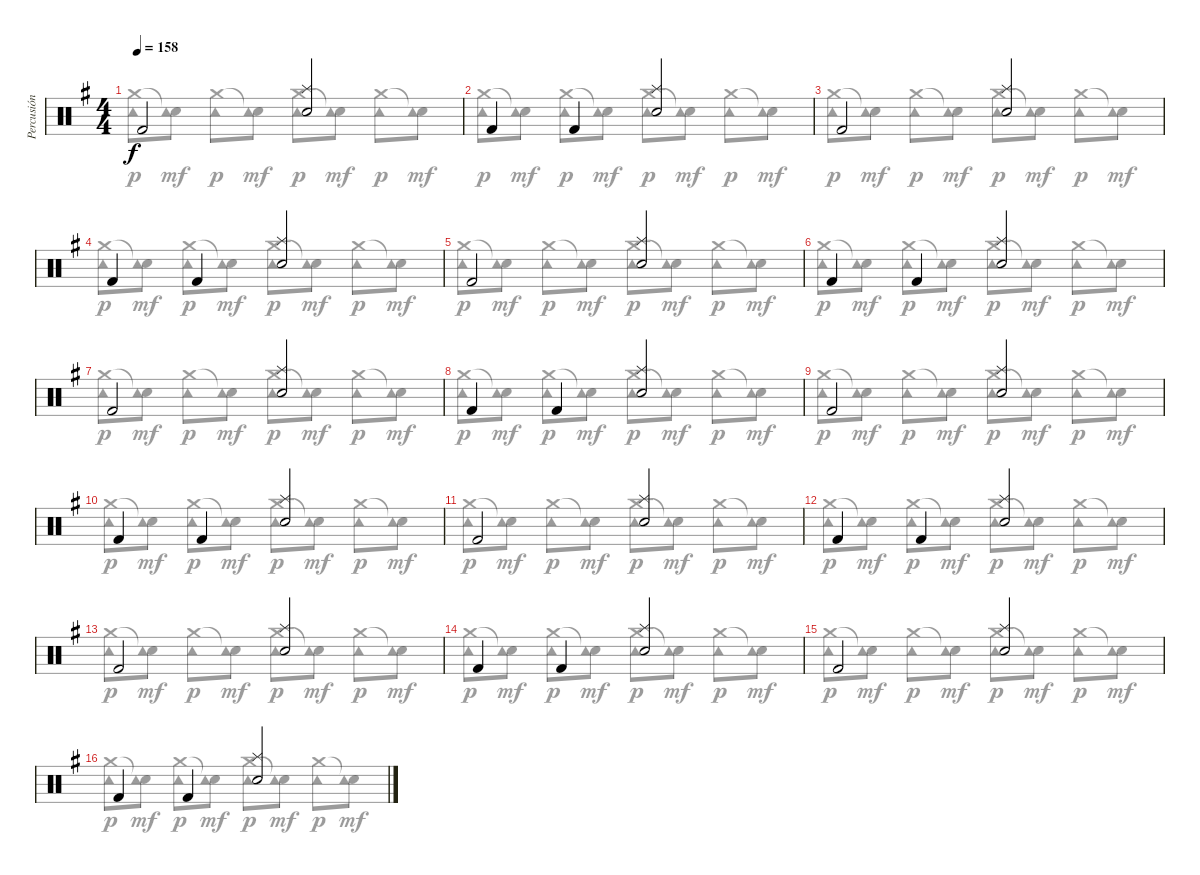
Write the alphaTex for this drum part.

\track ("Percusión" "Percusión") {instrument percussion}
\staff {score}
\articulation defaults
\voice
\ts (4 4)
\tempo 158
\clef neutral
\ks g "Kick (hit) 2".2{dy f}
("Splash (hit)" "Snare (hit) 2").2 |
"Kick (hit) 2".4 "Kick (hit) 2".4 ("Splash (hit)" "Snare (hit) 2").2 |
"Kick (hit) 2".2 ("Splash (hit)" "Snare (hit) 2").2 |
"Kick (hit) 2".4 "Kick (hit) 2".4 ("Splash (hit)" "Snare (hit) 2").2 |
"Kick (hit) 2".2 ("Splash (hit)" "Snare (hit) 2").2 |
"Kick (hit) 2".4 "Kick (hit) 2".4 ("Splash (hit)" "Snare (hit) 2").2 |
"Kick (hit) 2".2 ("Splash (hit)" "Snare (hit) 2").2 |
"Kick (hit) 2".4 "Kick (hit) 2".4 ("Splash (hit)" "Snare (hit) 2").2 |
"Kick (hit) 2".2 ("Splash (hit)" "Snare (hit) 2").2 |
"Kick (hit) 2".4 "Kick (hit) 2".4 ("Splash (hit)" "Snare (hit) 2").2 |
"Kick (hit) 2".2 ("Splash (hit)" "Snare (hit) 2").2 |
"Kick (hit) 2".4 "Kick (hit) 2".4 ("Splash (hit)" "Snare (hit) 2").2 |
"Kick (hit) 2".2 ("Splash (hit)" "Snare (hit) 2").2 |
"Kick (hit) 2".4 "Kick (hit) 2".4 ("Splash (hit)" "Snare (hit) 2").2 |
"Kick (hit) 2".2 ("Splash (hit)" "Snare (hit) 2").2 |
"Kick (hit) 2".4 "Kick (hit) 2".4 ("Splash (hit)" "Snare (hit) 2").2
\voice
\clef neutral
\ottava regular
\simile none
\ks g
("Crash medium (hit)" "Tambourine (hit)").8{dy p} ("Snare (hit)"{t} "Tambourine (hit)").8{dy mf} ("Crash medium (hit)" "Tambourine (hit)").8{dy p} ("Snare (hit)"{t} "Tambourine (hit)").8{dy mf} ("Crash medium (hit)" "Tambourine (hit)").8{dy p} ("Snare (hit)"{t} "Tambourine (hit)").8{dy mf} ("Crash medium (hit)" "Tambourine (hit)").8{dy p} ("Snare (hit)"{t} "Tambourine (hit)").8{dy mf} |
("Crash medium (hit)" "Tambourine (hit)").8{dy p} ("Snare (hit)"{t} "Tambourine (hit)").8{dy mf} ("Crash medium (hit)" "Tambourine (hit)").8{dy p} ("Snare (hit)"{t} "Tambourine (hit)").8{dy mf} ("Crash medium (hit)" "Tambourine (hit)").8{dy p} ("Snare (hit)"{t} "Tambourine (hit)").8{dy mf} ("Crash medium (hit)" "Tambourine (hit)").8{dy p} ("Snare (hit)"{t} "Tambourine (hit)").8{dy mf} |
("Crash medium (hit)" "Tambourine (hit)").8{dy p} ("Snare (hit)"{t} "Tambourine (hit)").8{dy mf} ("Crash medium (hit)" "Tambourine (hit)").8{dy p} ("Snare (hit)"{t} "Tambourine (hit)").8{dy mf} ("Crash medium (hit)" "Tambourine (hit)").8{dy p} ("Snare (hit)"{t} "Tambourine (hit)").8{dy mf} ("Crash medium (hit)" "Tambourine (hit)").8{dy p} ("Snare (hit)"{t} "Tambourine (hit)").8{dy mf} |
("Crash medium (hit)" "Tambourine (hit)").8{dy p} ("Snare (hit)"{t} "Tambourine (hit)").8{dy mf} ("Crash medium (hit)" "Tambourine (hit)").8{dy p} ("Snare (hit)"{t} "Tambourine (hit)").8{dy mf} ("Crash medium (hit)" "Tambourine (hit)").8{dy p} ("Snare (hit)"{t} "Tambourine (hit)").8{dy mf} ("Crash medium (hit)" "Tambourine (hit)").8{dy p} ("Snare (hit)"{t} "Tambourine (hit)").8{dy mf} |
("Crash medium (hit)" "Tambourine (hit)").8{dy p} ("Snare (hit)"{t} "Tambourine (hit)").8{dy mf} ("Crash medium (hit)" "Tambourine (hit)").8{dy p} ("Snare (hit)"{t} "Tambourine (hit)").8{dy mf} ("Crash medium (hit)" "Tambourine (hit)").8{dy p} ("Snare (hit)"{t} "Tambourine (hit)").8{dy mf} ("Crash medium (hit)" "Tambourine (hit)").8{dy p} ("Snare (hit)"{t} "Tambourine (hit)").8{dy mf} |
("Crash medium (hit)" "Tambourine (hit)").8{dy p} ("Snare (hit)"{t} "Tambourine (hit)").8{dy mf} ("Crash medium (hit)" "Tambourine (hit)").8{dy p} ("Snare (hit)"{t} "Tambourine (hit)").8{dy mf} ("Crash medium (hit)" "Tambourine (hit)").8{dy p} ("Snare (hit)"{t} "Tambourine (hit)").8{dy mf} ("Crash medium (hit)" "Tambourine (hit)").8{dy p} ("Snare (hit)"{t} "Tambourine (hit)").8{dy mf} |
("Crash medium (hit)" "Tambourine (hit)").8{dy p} ("Snare (hit)"{t} "Tambourine (hit)").8{dy mf} ("Crash medium (hit)" "Tambourine (hit)").8{dy p} ("Snare (hit)"{t} "Tambourine (hit)").8{dy mf} ("Crash medium (hit)" "Tambourine (hit)").8{dy p} ("Snare (hit)"{t} "Tambourine (hit)").8{dy mf} ("Crash medium (hit)" "Tambourine (hit)").8{dy p} ("Snare (hit)"{t} "Tambourine (hit)").8{dy mf} |
("Crash medium (hit)" "Tambourine (hit)").8{dy p} ("Snare (hit)"{t} "Tambourine (hit)").8{dy mf} ("Crash medium (hit)" "Tambourine (hit)").8{dy p} ("Snare (hit)"{t} "Tambourine (hit)").8{dy mf} ("Crash medium (hit)" "Tambourine (hit)").8{dy p} ("Snare (hit)"{t} "Tambourine (hit)").8{dy mf} ("Crash medium (hit)" "Tambourine (hit)").8{dy p} ("Snare (hit)"{t} "Tambourine (hit)").8{dy mf} |
("Crash medium (hit)" "Tambourine (hit)").8{dy p} ("Snare (hit)"{t} "Tambourine (hit)").8{dy mf} ("Crash medium (hit)" "Tambourine (hit)").8{dy p} ("Snare (hit)"{t} "Tambourine (hit)").8{dy mf} ("Crash medium (hit)" "Tambourine (hit)").8{dy p} ("Snare (hit)"{t} "Tambourine (hit)").8{dy mf} ("Crash medium (hit)" "Tambourine (hit)").8{dy p} ("Snare (hit)"{t} "Tambourine (hit)").8{dy mf} |
("Crash medium (hit)" "Tambourine (hit)").8{dy p} ("Snare (hit)"{t} "Tambourine (hit)").8{dy mf} ("Crash medium (hit)" "Tambourine (hit)").8{dy p} ("Snare (hit)"{t} "Tambourine (hit)").8{dy mf} ("Crash medium (hit)" "Tambourine (hit)").8{dy p} ("Snare (hit)"{t} "Tambourine (hit)").8{dy mf} ("Crash medium (hit)" "Tambourine (hit)").8{dy p} ("Snare (hit)"{t} "Tambourine (hit)").8{dy mf} |
("Crash medium (hit)" "Tambourine (hit)").8{dy p} ("Snare (hit)"{t} "Tambourine (hit)").8{dy mf} ("Crash medium (hit)" "Tambourine (hit)").8{dy p} ("Snare (hit)"{t} "Tambourine (hit)").8{dy mf} ("Crash medium (hit)" "Tambourine (hit)").8{dy p} ("Snare (hit)"{t} "Tambourine (hit)").8{dy mf} ("Crash medium (hit)" "Tambourine (hit)").8{dy p} ("Snare (hit)"{t} "Tambourine (hit)").8{dy mf} |
("Crash medium (hit)" "Tambourine (hit)").8{dy p} ("Snare (hit)"{t} "Tambourine (hit)").8{dy mf} ("Crash medium (hit)" "Tambourine (hit)").8{dy p} ("Snare (hit)"{t} "Tambourine (hit)").8{dy mf} ("Crash medium (hit)" "Tambourine (hit)").8{dy p} ("Snare (hit)"{t} "Tambourine (hit)").8{dy mf} ("Crash medium (hit)" "Tambourine (hit)").8{dy p} ("Snare (hit)"{t} "Tambourine (hit)").8{dy mf} |
("Crash medium (hit)" "Tambourine (hit)").8{dy p} ("Snare (hit)"{t} "Tambourine (hit)").8{dy mf} ("Crash medium (hit)" "Tambourine (hit)").8{dy p} ("Snare (hit)"{t} "Tambourine (hit)").8{dy mf} ("Crash medium (hit)" "Tambourine (hit)").8{dy p} ("Snare (hit)"{t} "Tambourine (hit)").8{dy mf} ("Crash medium (hit)" "Tambourine (hit)").8{dy p} ("Snare (hit)"{t} "Tambourine (hit)").8{dy mf} |
("Crash medium (hit)" "Tambourine (hit)").8{dy p} ("Snare (hit)"{t} "Tambourine (hit)").8{dy mf} ("Crash medium (hit)" "Tambourine (hit)").8{dy p} ("Snare (hit)"{t} "Tambourine (hit)").8{dy mf} ("Crash medium (hit)" "Tambourine (hit)").8{dy p} ("Snare (hit)"{t} "Tambourine (hit)").8{dy mf} ("Crash medium (hit)" "Tambourine (hit)").8{dy p} ("Snare (hit)"{t} "Tambourine (hit)").8{dy mf} |
("Crash medium (hit)" "Tambourine (hit)").8{dy p} ("Snare (hit)"{t} "Tambourine (hit)").8{dy mf} ("Crash medium (hit)" "Tambourine (hit)").8{dy p} ("Snare (hit)"{t} "Tambourine (hit)").8{dy mf} ("Crash medium (hit)" "Tambourine (hit)").8{dy p} ("Snare (hit)"{t} "Tambourine (hit)").8{dy mf} ("Crash medium (hit)" "Tambourine (hit)").8{dy p} ("Snare (hit)"{t} "Tambourine (hit)").8{dy mf} |
("Crash medium (hit)" "Tambourine (hit)").8{dy p} ("Snare (hit)"{t} "Tambourine (hit)").8{dy mf} ("Crash medium (hit)" "Tambourine (hit)").8{dy p} ("Snare (hit)"{t} "Tambourine (hit)").8{dy mf} ("Crash medium (hit)" "Tambourine (hit)").8{dy p} ("Snare (hit)"{t} "Tambourine (hit)").8{dy mf} ("Crash medium (hit)" "Tambourine (hit)").8{dy p} ("Snare (hit)"{t} "Tambourine (hit)").8{dy mf}
